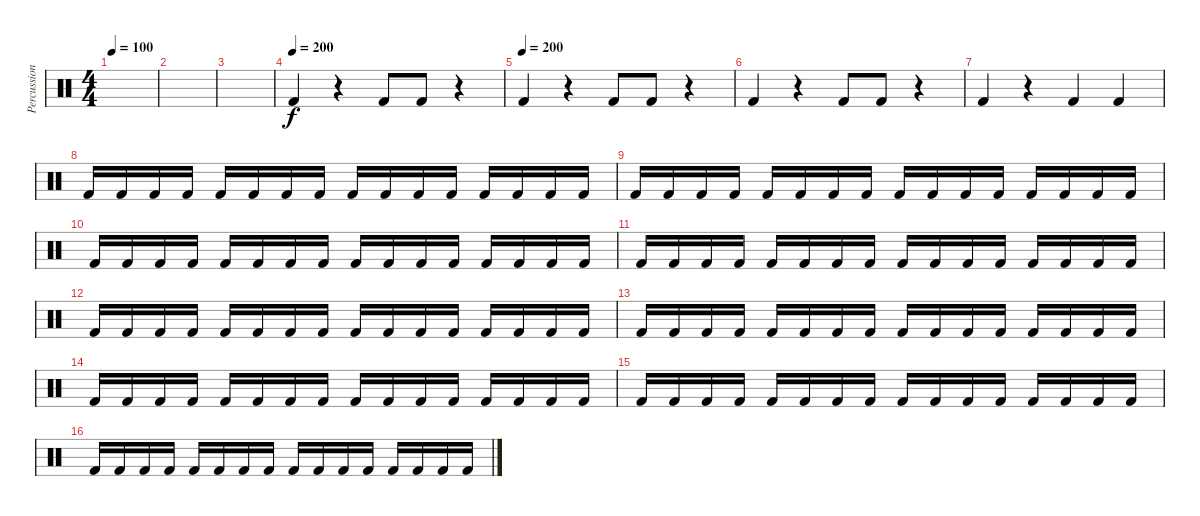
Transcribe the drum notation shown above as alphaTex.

\track ("Percussions 2" "Percussion") {instrument percussion}
\staff {score}
\articulation defaults
\ts (4 4)
\tempo 100
\clef neutral
\ks c
|
|
|
\tempo (200)
"Kick (hit) 2".4{dy f} r.4 "Kick (hit) 2".8 "Kick (hit) 2".8 r.4 |
\tempo (200)
"Kick (hit) 2".4 r.4 "Kick (hit) 2".8 "Kick (hit) 2".8 r.4 |
"Kick (hit) 2".4 r.4 "Kick (hit) 2".8 "Kick (hit) 2".8 r.4 |
"Kick (hit) 2".4 r.4 "Kick (hit) 2".4 "Kick (hit) 2".4 |
"Kick (hit) 2".16 "Kick (hit) 2".16 "Kick (hit) 2".16 "Kick (hit) 2".16 "Kick (hit) 2".16 "Kick (hit) 2".16 "Kick (hit) 2".16 "Kick (hit) 2".16 "Kick (hit) 2".16 "Kick (hit) 2".16 "Kick (hit) 2".16 "Kick (hit) 2".16 "Kick (hit) 2".16 "Kick (hit) 2".16 "Kick (hit) 2".16 "Kick (hit) 2".16 |
"Kick (hit) 2".16 "Kick (hit) 2".16 "Kick (hit) 2".16 "Kick (hit) 2".16 "Kick (hit) 2".16 "Kick (hit) 2".16 "Kick (hit) 2".16 "Kick (hit) 2".16 "Kick (hit) 2".16 "Kick (hit) 2".16 "Kick (hit) 2".16 "Kick (hit) 2".16 "Kick (hit) 2".16 "Kick (hit) 2".16 "Kick (hit) 2".16 "Kick (hit) 2".16 |
"Kick (hit) 2".16 "Kick (hit) 2".16 "Kick (hit) 2".16 "Kick (hit) 2".16 "Kick (hit) 2".16 "Kick (hit) 2".16 "Kick (hit) 2".16 "Kick (hit) 2".16 "Kick (hit) 2".16 "Kick (hit) 2".16 "Kick (hit) 2".16 "Kick (hit) 2".16 "Kick (hit) 2".16 "Kick (hit) 2".16 "Kick (hit) 2".16 "Kick (hit) 2".16 |
"Kick (hit) 2".16 "Kick (hit) 2".16 "Kick (hit) 2".16 "Kick (hit) 2".16 "Kick (hit) 2".16 "Kick (hit) 2".16 "Kick (hit) 2".16 "Kick (hit) 2".16 "Kick (hit) 2".16 "Kick (hit) 2".16 "Kick (hit) 2".16 "Kick (hit) 2".16 "Kick (hit) 2".16 "Kick (hit) 2".16 "Kick (hit) 2".16 "Kick (hit) 2".16 |
"Kick (hit) 2".16 "Kick (hit) 2".16 "Kick (hit) 2".16 "Kick (hit) 2".16 "Kick (hit) 2".16 "Kick (hit) 2".16 "Kick (hit) 2".16 "Kick (hit) 2".16 "Kick (hit) 2".16 "Kick (hit) 2".16 "Kick (hit) 2".16 "Kick (hit) 2".16 "Kick (hit) 2".16 "Kick (hit) 2".16 "Kick (hit) 2".16 "Kick (hit) 2".16 |
"Kick (hit) 2".16 "Kick (hit) 2".16 "Kick (hit) 2".16 "Kick (hit) 2".16 "Kick (hit) 2".16 "Kick (hit) 2".16 "Kick (hit) 2".16 "Kick (hit) 2".16 "Kick (hit) 2".16 "Kick (hit) 2".16 "Kick (hit) 2".16 "Kick (hit) 2".16 "Kick (hit) 2".16 "Kick (hit) 2".16 "Kick (hit) 2".16 "Kick (hit) 2".16 |
"Kick (hit) 2".16 "Kick (hit) 2".16 "Kick (hit) 2".16 "Kick (hit) 2".16 "Kick (hit) 2".16 "Kick (hit) 2".16 "Kick (hit) 2".16 "Kick (hit) 2".16 "Kick (hit) 2".16 "Kick (hit) 2".16 "Kick (hit) 2".16 "Kick (hit) 2".16 "Kick (hit) 2".16 "Kick (hit) 2".16 "Kick (hit) 2".16 "Kick (hit) 2".16 |
"Kick (hit) 2".16 "Kick (hit) 2".16 "Kick (hit) 2".16 "Kick (hit) 2".16 "Kick (hit) 2".16 "Kick (hit) 2".16 "Kick (hit) 2".16 "Kick (hit) 2".16 "Kick (hit) 2".16 "Kick (hit) 2".16 "Kick (hit) 2".16 "Kick (hit) 2".16 "Kick (hit) 2".16 "Kick (hit) 2".16 "Kick (hit) 2".16 "Kick (hit) 2".16 |
"Kick (hit) 2".16 "Kick (hit) 2".16 "Kick (hit) 2".16 "Kick (hit) 2".16 "Kick (hit) 2".16 "Kick (hit) 2".16 "Kick (hit) 2".16 "Kick (hit) 2".16 "Kick (hit) 2".16 "Kick (hit) 2".16 "Kick (hit) 2".16 "Kick (hit) 2".16 "Kick (hit) 2".16 "Kick (hit) 2".16 "Kick (hit) 2".16 "Kick (hit) 2".16
